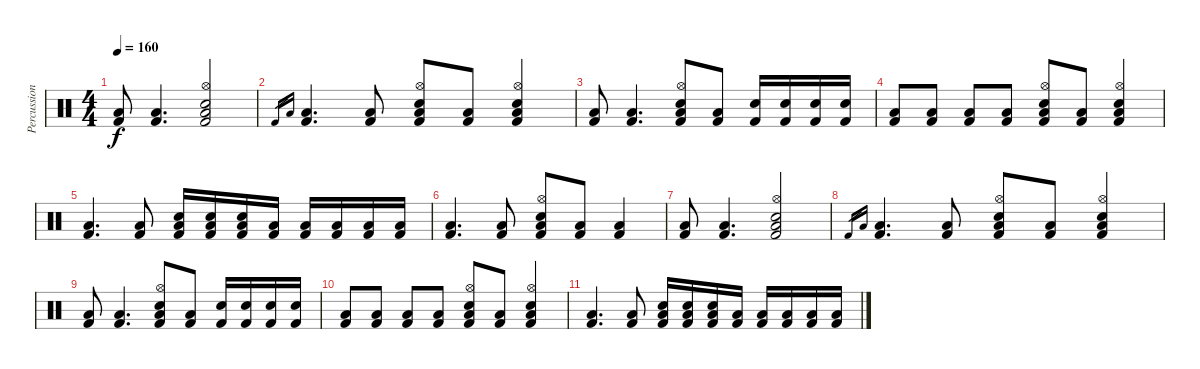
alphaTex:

\track ("Percussion" "Percussion") {instrument percussion}
\staff {score}
\articulation defaults
\ts (4 4)
\tempo 160
\clef neutral
\ks c
("Kick (hit) 2" "Low Floor Tom (hit)").8{dy f} ("Kick (hit) 2" "Low Floor Tom (hit)").4{d} ("Hi-Hat (open)" "Snare (hit) 2" "Kick (hit) 2" "Low Floor Tom (hit)").2 |
"Kick (hit) 2".16{gr} "Low Floor Tom (hit)".16{gr} ("Kick (hit) 2" "Low Floor Tom (hit)").4{d} ("Kick (hit) 2" "Low Floor Tom (hit)").8 ("Hi-Hat (open)" "Snare (hit) 2" "Kick (hit) 2" "Low Floor Tom (hit)").8 ("Kick (hit) 2" "Low Floor Tom (hit)").8 ("Hi-Hat (open)" "Snare (hit) 2" "Kick (hit) 2" "Low Floor Tom (hit)").4 |
("Kick (hit) 2" "Low Floor Tom (hit)").8 ("Kick (hit) 2" "Low Floor Tom (hit)").4{d} ("Hi-Hat (open)" "Snare (hit) 2" "Kick (hit) 2" "Low Floor Tom (hit)").8 ("Kick (hit) 2" "Low Floor Tom (hit)").8 ("Snare (hit) 2" "Kick (hit) 2").16 ("Snare (hit) 2" "Kick (hit) 2").16 ("Snare (hit) 2" "Kick (hit) 2").16 ("Snare (hit) 2" "Kick (hit) 2").16 |
("Kick (hit) 2" "Low Floor Tom (hit)").8 ("Kick (hit) 2" "Low Floor Tom (hit)").8 ("Kick (hit) 2" "Low Floor Tom (hit)").8 ("Kick (hit) 2" "Low Floor Tom (hit)").8 ("Hi-Hat (open)" "Snare (hit) 2" "Kick (hit) 2" "Low Floor Tom (hit)").8 ("Kick (hit) 2" "Low Floor Tom (hit)").8 ("Hi-Hat (open)" "Snare (hit) 2" "Kick (hit) 2" "Low Floor Tom (hit)").4 |
("Kick (hit) 2" "Low Floor Tom (hit)").4{d} ("Kick (hit) 2" "Low Floor Tom (hit)").8 ("Snare (hit) 2" "Kick (hit) 2" "Low Floor Tom (hit)").16 ("Snare (hit) 2" "Kick (hit) 2" "Low Floor Tom (hit)").16 ("Snare (hit) 2" "Kick (hit) 2" "Low Floor Tom (hit)").16 ("Kick (hit) 2" "Low Floor Tom (hit)").16 ("Kick (hit) 2" "Low Floor Tom (hit)").16 ("Kick (hit) 2" "Low Floor Tom (hit)").16 ("Kick (hit) 2" "Low Floor Tom (hit)").16 ("Kick (hit) 2" "Low Floor Tom (hit)").16 |
("Kick (hit) 2" "Low Floor Tom (hit)").4{d} ("Kick (hit) 2" "Low Floor Tom (hit)").8 ("Hi-Hat (open)" "Snare (hit) 2" "Kick (hit) 2" "Low Floor Tom (hit)").8 ("Kick (hit) 2" "Low Floor Tom (hit)").8 ("Kick (hit) 2" "Low Floor Tom (hit)").4 |
("Kick (hit) 2" "Low Floor Tom (hit)").8 ("Kick (hit) 2" "Low Floor Tom (hit)").4{d} ("Hi-Hat (open)" "Snare (hit) 2" "Kick (hit) 2" "Low Floor Tom (hit)").2 |
"Kick (hit) 2".16{gr} "Low Floor Tom (hit)".16{gr} ("Kick (hit) 2" "Low Floor Tom (hit)").4{d} ("Kick (hit) 2" "Low Floor Tom (hit)").8 ("Hi-Hat (open)" "Snare (hit) 2" "Kick (hit) 2" "Low Floor Tom (hit)").8 ("Kick (hit) 2" "Low Floor Tom (hit)").8 ("Hi-Hat (open)" "Snare (hit) 2" "Kick (hit) 2" "Low Floor Tom (hit)").4 |
("Kick (hit) 2" "Low Floor Tom (hit)").8 ("Kick (hit) 2" "Low Floor Tom (hit)").4{d} ("Hi-Hat (open)" "Snare (hit) 2" "Kick (hit) 2" "Low Floor Tom (hit)").8 ("Kick (hit) 2" "Low Floor Tom (hit)").8 ("Snare (hit) 2" "Kick (hit) 2").16 ("Snare (hit) 2" "Kick (hit) 2").16 ("Snare (hit) 2" "Kick (hit) 2").16 ("Snare (hit) 2" "Kick (hit) 2").16 |
("Kick (hit) 2" "Low Floor Tom (hit)").8 ("Kick (hit) 2" "Low Floor Tom (hit)").8 ("Kick (hit) 2" "Low Floor Tom (hit)").8 ("Kick (hit) 2" "Low Floor Tom (hit)").8 ("Hi-Hat (open)" "Snare (hit) 2" "Kick (hit) 2" "Low Floor Tom (hit)").8 ("Kick (hit) 2" "Low Floor Tom (hit)").8 ("Hi-Hat (open)" "Snare (hit) 2" "Kick (hit) 2" "Low Floor Tom (hit)").4 |
("Kick (hit) 2" "Low Floor Tom (hit)").4{d} ("Kick (hit) 2" "Low Floor Tom (hit)").8 ("Snare (hit) 2" "Kick (hit) 2" "Low Floor Tom (hit)").16 ("Snare (hit) 2" "Kick (hit) 2" "Low Floor Tom (hit)").16 ("Snare (hit) 2" "Kick (hit) 2" "Low Floor Tom (hit)").16 ("Kick (hit) 2" "Low Floor Tom (hit)").16 ("Kick (hit) 2" "Low Floor Tom (hit)").16 ("Kick (hit) 2" "Low Floor Tom (hit)").16 ("Kick (hit) 2" "Low Floor Tom (hit)").16 ("Kick (hit) 2" "Low Floor Tom (hit)").16
